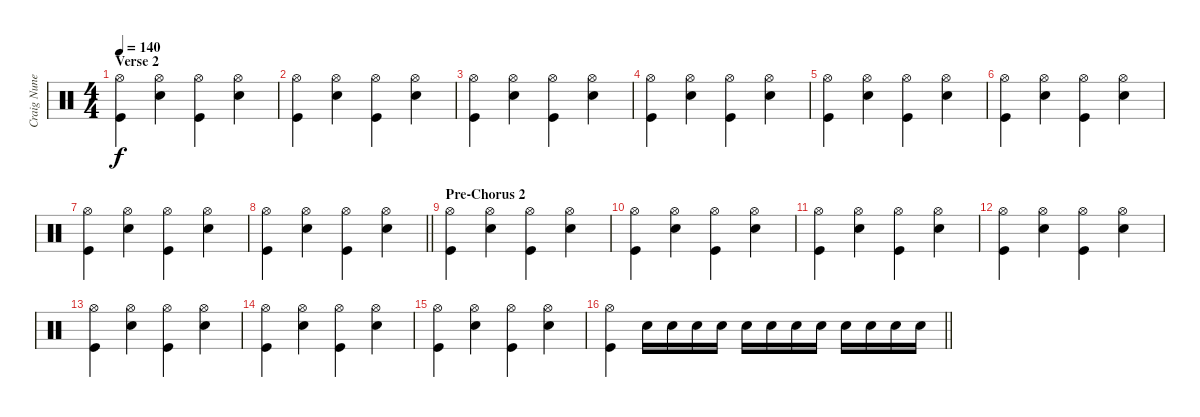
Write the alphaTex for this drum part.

\track ("Craig Nunenmacher" "Craig Nune") {instrument percussion}
\staff {score}
\articulation defaults
\ts (4 4)
\section ("" "Verse 2")
\tempo 140
\clef neutral
\ks c
("Hi-Hat (open)" "Kick (hit)").4{dy f} ("Snare (hit) 2" "Hi-Hat (open)").4 ("Hi-Hat (open)" "Kick (hit)").4 ("Snare (hit) 2" "Hi-Hat (open)").4 |
("Hi-Hat (open)" "Kick (hit)").4 ("Snare (hit) 2" "Hi-Hat (open)").4 ("Hi-Hat (open)" "Kick (hit)").4 ("Snare (hit) 2" "Hi-Hat (open)").4 |
("Hi-Hat (open)" "Kick (hit)").4 ("Snare (hit) 2" "Hi-Hat (open)").4 ("Hi-Hat (open)" "Kick (hit)").4 ("Snare (hit) 2" "Hi-Hat (open)").4 |
("Hi-Hat (open)" "Kick (hit)").4 ("Snare (hit) 2" "Hi-Hat (open)").4 ("Hi-Hat (open)" "Kick (hit)").4 ("Snare (hit) 2" "Hi-Hat (open)").4 |
("Hi-Hat (open)" "Kick (hit)").4 ("Snare (hit) 2" "Hi-Hat (open)").4 ("Hi-Hat (open)" "Kick (hit)").4 ("Snare (hit) 2" "Hi-Hat (open)").4 |
("Hi-Hat (open)" "Kick (hit)").4 ("Snare (hit) 2" "Hi-Hat (open)").4 ("Hi-Hat (open)" "Kick (hit)").4 ("Snare (hit) 2" "Hi-Hat (open)").4 |
("Hi-Hat (open)" "Kick (hit)").4 ("Snare (hit) 2" "Hi-Hat (open)").4 ("Hi-Hat (open)" "Kick (hit)").4 ("Snare (hit) 2" "Hi-Hat (open)").4 |
\barLineRight lightlight
("Hi-Hat (open)" "Kick (hit)").4 ("Snare (hit) 2" "Hi-Hat (open)").4 ("Hi-Hat (open)" "Kick (hit)").4 ("Snare (hit) 2" "Hi-Hat (open)").4 |
\section ("" "Pre-Chorus 2")
("Hi-Hat (open)" "Kick (hit)").4 ("Snare (hit) 2" "Hi-Hat (open)").4 ("Hi-Hat (open)" "Kick (hit)").4 ("Snare (hit) 2" "Hi-Hat (open)").4 |
("Hi-Hat (open)" "Kick (hit)").4 ("Snare (hit) 2" "Hi-Hat (open)").4 ("Hi-Hat (open)" "Kick (hit)").4 ("Snare (hit) 2" "Hi-Hat (open)").4 |
("Hi-Hat (open)" "Kick (hit)").4 ("Snare (hit) 2" "Hi-Hat (open)").4 ("Hi-Hat (open)" "Kick (hit)").4 ("Snare (hit) 2" "Hi-Hat (open)").4 |
("Hi-Hat (open)" "Kick (hit)").4 ("Snare (hit) 2" "Hi-Hat (open)").4 ("Hi-Hat (open)" "Kick (hit)").4 ("Snare (hit) 2" "Hi-Hat (open)").4 |
("Hi-Hat (open)" "Kick (hit)").4 ("Snare (hit) 2" "Hi-Hat (open)").4 ("Hi-Hat (open)" "Kick (hit)").4 ("Snare (hit) 2" "Hi-Hat (open)").4 |
("Hi-Hat (open)" "Kick (hit)").4 ("Snare (hit) 2" "Hi-Hat (open)").4 ("Hi-Hat (open)" "Kick (hit)").4 ("Snare (hit) 2" "Hi-Hat (open)").4 |
("Hi-Hat (open)" "Kick (hit)").4 ("Snare (hit) 2" "Hi-Hat (open)").4 ("Hi-Hat (open)" "Kick (hit)").4 ("Snare (hit) 2" "Hi-Hat (open)").4 |
\barLineRight lightlight
("Hi-Hat (open)" "Kick (hit)").4 "Snare (hit) 2".16 "Snare (hit) 2".16 "Snare (hit) 2".16 "Snare (hit) 2".16 "Snare (hit) 2".16 "Snare (hit) 2".16 "Snare (hit) 2".16 "Snare (hit) 2".16 "Snare (hit) 2".16 "Snare (hit) 2".16 "Snare (hit) 2".16 "Snare (hit) 2".16
